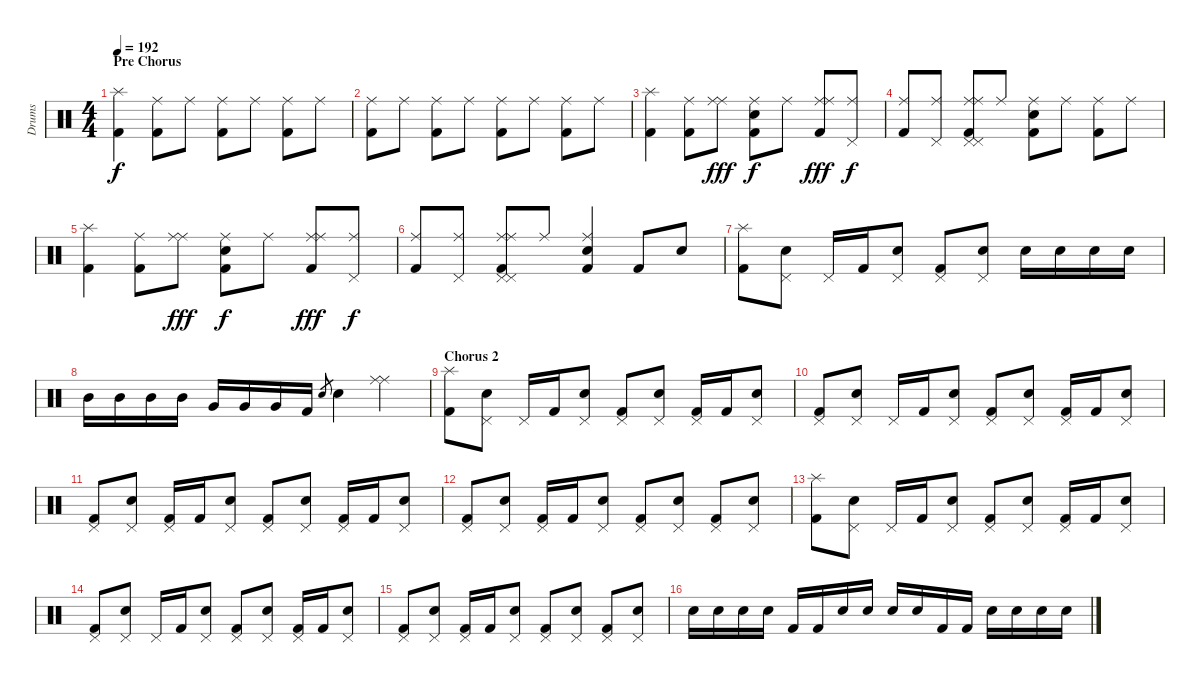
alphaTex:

\track ("Drums" "Drums") {instrument percussion}
\staff {score}
\articulation defaults
\ts (4 4)
\section ("" "Pre Chorus")
\tempo 192
\clef neutral
\ks c
("Splash (hit)" "Kick (hit) 2").4{dy f} ("Ride (middle)" "Kick (hit) 2").8 "Ride (middle)".8 ("Ride (middle)" "Kick (hit) 2").8 "Ride (middle)".8 ("Ride (middle)" "Kick (hit) 2").8 "Ride (middle)".8 |
("Ride (middle)" "Kick (hit) 2").8 "Ride (middle)".8 ("Ride (middle)" "Kick (hit) 2").8 "Ride (middle)".8 ("Ride (middle)" "Kick (hit) 2").8 "Ride (middle)".8 ("Ride (middle)" "Kick (hit) 2").8 "Ride (middle)".8 |
("Splash (hit)" "Kick (hit) 2").4 ("Ride (middle)" "Kick (hit) 2").8 ("Ride (middle)" "Ride (middle)").8{dy fff} ("Ride (middle)" "Electric Snare (hit)" "Kick (hit) 2").8{dy f} "Ride (middle)".8 ("Ride (middle)" "Ride (middle)" "Kick (hit) 2").8{dy fff} ("Ride (middle)" "Pedal Hi-Hat (hit)").8{dy f} |
("Ride (middle)" "Kick (hit) 2").8 ("Ride (middle)" "Pedal Hi-Hat (hit)").8 ("Ride (middle)" "Ride (middle)" "Pedal Hi-Hat (hit)" "Pedal Hi-Hat (hit)" "Kick (hit) 2").8 "Ride (middle)".8 ("Ride (middle)" "Electric Snare (hit)" "Kick (hit) 2").8 "Ride (middle)".8 ("Ride (middle)" "Kick (hit) 2").8 "Ride (middle)".8 |
("Splash (hit)" "Kick (hit) 2").4 ("Ride (middle)" "Kick (hit) 2").8 ("Ride (middle)" "Ride (middle)").8{dy fff} ("Ride (middle)" "Electric Snare (hit)" "Kick (hit) 2").8{dy f} "Ride (middle)".8 ("Ride (middle)" "Ride (middle)" "Kick (hit) 2").8{dy fff} ("Ride (middle)" "Pedal Hi-Hat (hit)").8{dy f} |
("Ride (middle)" "Kick (hit) 2").8 ("Ride (middle)" "Pedal Hi-Hat (hit)").8 ("Ride (middle)" "Ride (middle)" "Pedal Hi-Hat (hit)" "Pedal Hi-Hat (hit)" "Kick (hit) 2").8 "Ride (middle)".8 ("Ride (middle)" "Electric Snare (hit)" "Kick (hit) 2").4 "Kick (hit) 2".8 "Electric Snare (hit)".8 |
("Splash (hit)" "Kick (hit) 2").8 ("Pedal Hi-Hat (hit)" "Electric Snare (hit)").8 "Pedal Hi-Hat (hit)".16 "Kick (hit) 2".16 ("Pedal Hi-Hat (hit)" "Electric Snare (hit)").8 ("Pedal Hi-Hat (hit)" "Kick (hit) 2").8 ("Pedal Hi-Hat (hit)" "Electric Snare (hit)").8 "Electric Snare (hit)".16 "Electric Snare (hit)".16 "Electric Snare (hit)".16 "Electric Snare (hit)".16 |
"Mid Tom (hit)".16 "Mid Tom (hit)".16 "Mid Tom (hit)".16 "Mid Tom (hit)".16 "Very Low Tom (hit)".16 "Very Low Tom (hit)".16 "Very Low Tom (hit)".16 "Kick (hit) 2".16 "Electric Snare (hit)".8{gr} "Electric Snare (hit)".4 ("Ride (middle)" "Ride (middle)").4 |
\section ("" "Chorus 2")
("Splash (hit)" "Kick (hit) 2").8 ("Pedal Hi-Hat (hit)" "Electric Snare (hit)").8 "Pedal Hi-Hat (hit)".16 "Kick (hit) 2".16 ("Pedal Hi-Hat (hit)" "Electric Snare (hit)").8 ("Pedal Hi-Hat (hit)" "Kick (hit) 2").8 ("Pedal Hi-Hat (hit)" "Electric Snare (hit)").8 ("Pedal Hi-Hat (hit)" "Kick (hit) 2").16 "Kick (hit) 2".16 ("Pedal Hi-Hat (hit)" "Electric Snare (hit)").8 |
("Pedal Hi-Hat (hit)" "Kick (hit) 2").8 ("Pedal Hi-Hat (hit)" "Electric Snare (hit)").8 "Pedal Hi-Hat (hit)".16 "Kick (hit) 2".16 ("Pedal Hi-Hat (hit)" "Electric Snare (hit)").8 ("Pedal Hi-Hat (hit)" "Kick (hit) 2").8 ("Pedal Hi-Hat (hit)" "Electric Snare (hit)").8 ("Pedal Hi-Hat (hit)" "Kick (hit) 2").16 "Kick (hit) 2".16 ("Pedal Hi-Hat (hit)" "Electric Snare (hit)").8 |
("Pedal Hi-Hat (hit)" "Kick (hit) 2").8 ("Pedal Hi-Hat (hit)" "Electric Snare (hit)").8 ("Pedal Hi-Hat (hit)" "Kick (hit) 2").16 "Kick (hit) 2".16 ("Pedal Hi-Hat (hit)" "Electric Snare (hit)").8 ("Pedal Hi-Hat (hit)" "Kick (hit) 2").8 ("Pedal Hi-Hat (hit)" "Electric Snare (hit)").8 ("Pedal Hi-Hat (hit)" "Kick (hit) 2").16 "Kick (hit) 2".16 ("Pedal Hi-Hat (hit)" "Electric Snare (hit)").8 |
("Pedal Hi-Hat (hit)" "Kick (hit) 2").8 ("Pedal Hi-Hat (hit)" "Electric Snare (hit)").8 ("Pedal Hi-Hat (hit)" "Kick (hit) 2").16 "Kick (hit) 2".16 ("Pedal Hi-Hat (hit)" "Electric Snare (hit)").8 ("Pedal Hi-Hat (hit)" "Kick (hit) 2").8 ("Pedal Hi-Hat (hit)" "Electric Snare (hit)").8 ("Pedal Hi-Hat (hit)" "Kick (hit) 2").8 ("Pedal Hi-Hat (hit)" "Electric Snare (hit)").8 |
("Splash (hit)" "Kick (hit) 2").8 ("Pedal Hi-Hat (hit)" "Electric Snare (hit)").8 "Pedal Hi-Hat (hit)".16 "Kick (hit) 2".16 ("Pedal Hi-Hat (hit)" "Electric Snare (hit)").8 ("Pedal Hi-Hat (hit)" "Kick (hit) 2").8 ("Pedal Hi-Hat (hit)" "Electric Snare (hit)").8 ("Pedal Hi-Hat (hit)" "Kick (hit) 2").16 "Kick (hit) 2".16 ("Pedal Hi-Hat (hit)" "Electric Snare (hit)").8 |
("Pedal Hi-Hat (hit)" "Kick (hit) 2").8 ("Pedal Hi-Hat (hit)" "Electric Snare (hit)").8 "Pedal Hi-Hat (hit)".16 "Kick (hit) 2".16 ("Pedal Hi-Hat (hit)" "Electric Snare (hit)").8 ("Pedal Hi-Hat (hit)" "Kick (hit) 2").8 ("Pedal Hi-Hat (hit)" "Electric Snare (hit)").8 ("Pedal Hi-Hat (hit)" "Kick (hit) 2").16 "Kick (hit) 2".16 ("Pedal Hi-Hat (hit)" "Electric Snare (hit)").8 |
("Pedal Hi-Hat (hit)" "Kick (hit) 2").8 ("Pedal Hi-Hat (hit)" "Electric Snare (hit)").8 ("Pedal Hi-Hat (hit)" "Kick (hit) 2").16 "Kick (hit) 2".16 ("Pedal Hi-Hat (hit)" "Electric Snare (hit)").8 ("Pedal Hi-Hat (hit)" "Kick (hit) 2").8 ("Pedal Hi-Hat (hit)" "Electric Snare (hit)").8 ("Pedal Hi-Hat (hit)" "Kick (hit) 2").8 ("Pedal Hi-Hat (hit)" "Electric Snare (hit)").8 |
"Electric Snare (hit)".16 "Electric Snare (hit)".16 "Electric Snare (hit)".16 "Electric Snare (hit)".16 "Kick (hit) 2".16 "Kick (hit) 2".16 "Electric Snare (hit)".16 "Electric Snare (hit)".16 "Electric Snare (hit)".16 "Electric Snare (hit)".16 "Kick (hit) 2".16 "Kick (hit) 2".16 "Electric Snare (hit)".16 "Electric Snare (hit)".16 "Electric Snare (hit)".16 "Electric Snare (hit)".16
